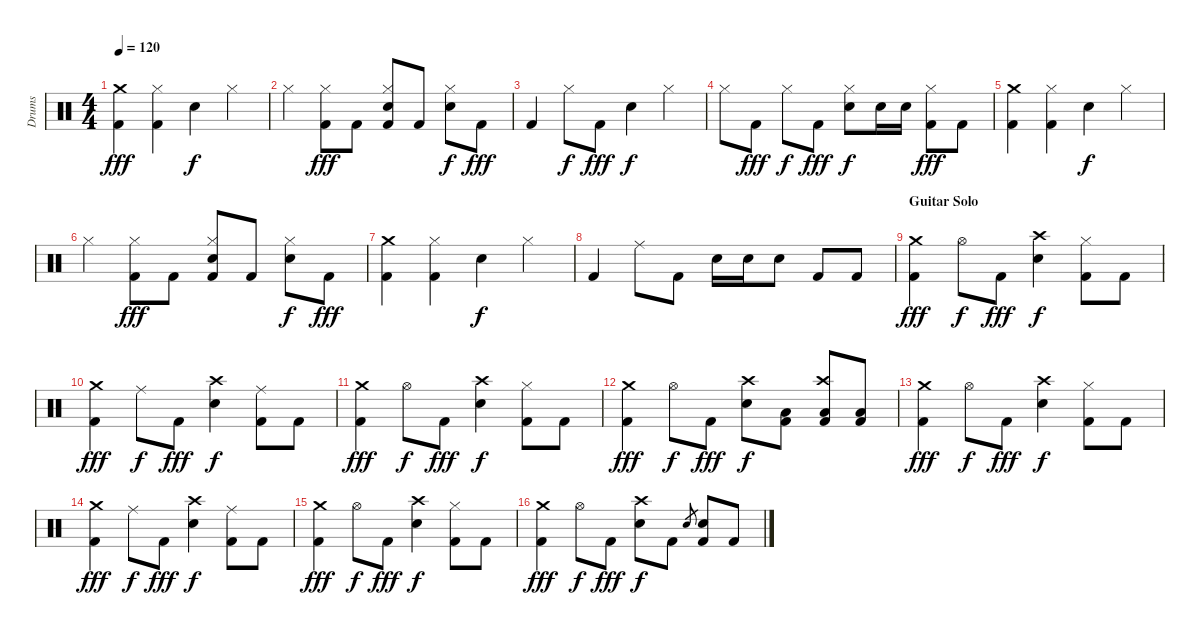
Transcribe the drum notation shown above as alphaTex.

\track ("Drums" "Drums") {instrument percussion}
\staff {score}
\articulation defaults
\ts (4 4)
\tempo 120
\clef neutral
\ks c
("Kick (hit) 2" "Crash medium (hit)").4{dy fff} ("Kick (hit) 2" "Hi-Hat (closed)").4 "Snare (hit) 2".4{dy f} "Hi-Hat (closed)".4 |
"Hi-Hat (closed)".4 ("Kick (hit) 2" "Hi-Hat (closed)").8{dy fff} "Kick (hit) 2".8 ("Kick (hit) 2" "Hi-Hat (closed)" "Snare (hit) 2").8 "Kick (hit) 2".8 ("Hi-Hat (closed)" "Snare (hit) 2").8{dy f} "Kick (hit) 2".8{dy fff} |
"Kick (hit) 2".4 "Hi-Hat (closed)".8{dy f} "Kick (hit) 2".8{dy fff} "Snare (hit) 2".4{dy f} "Hi-Hat (closed)".4 |
"Hi-Hat (closed)".8 "Kick (hit) 2".8{dy fff} "Hi-Hat (closed)".8{dy f} "Kick (hit) 2".8{dy fff} ("Hi-Hat (closed)" "Snare (hit) 2").8{dy f} "Snare (hit) 2".16 "Snare (hit) 2".16 ("Kick (hit) 2" "Hi-Hat (closed)").8{dy fff} "Kick (hit) 2".8 |
("Kick (hit) 2" "Crash medium (hit)").4 ("Kick (hit) 2" "Hi-Hat (closed)").4 "Snare (hit) 2".4{dy f} "Hi-Hat (closed)".4 |
"Hi-Hat (closed)".4 ("Kick (hit) 2" "Hi-Hat (closed)").8{dy fff} "Kick (hit) 2".8 ("Kick (hit) 2" "Hi-Hat (closed)" "Snare (hit) 2").8 "Kick (hit) 2".8 ("Hi-Hat (closed)" "Snare (hit) 2").8{dy f} "Kick (hit) 2".8{dy fff} |
("Kick (hit) 2" "Crash medium (hit)").4 ("Kick (hit) 2" "Hi-Hat (closed)").4 "Snare (hit) 2".4{dy f} "Hi-Hat (closed)".4 |
"Kick (hit) 2".4 "Ride (middle)".8 "Kick (hit) 2".8 "Snare (hit) 2".16 "Snare (hit) 2".16 "Snare (hit) 2".8 "Kick (hit) 2".8 "Kick (hit) 2".8 |
\section ("" "Guitar Solo")
("Kick (hit) 2" "Crash medium (hit)").4{dy fff} "Hi-Hat (open)".8{dy f} "Kick (hit) 2".8{dy fff} ("Snare (hit) 2" "Crash high (hit)").4{dy f} ("Kick (hit) 2" "Hi-Hat (closed)").8 "Kick (hit) 2".8 |
("Kick (hit) 2" "Crash medium (hit)").4{dy fff} "Ride (middle)".8{dy f} "Kick (hit) 2".8{dy fff} ("Snare (hit) 2" "Crash high (hit)").4{dy f} ("Kick (hit) 2" "Ride (middle)").8 "Kick (hit) 2".8 |
("Kick (hit) 2" "Crash medium (hit)").4{dy fff} "Hi-Hat (open)".8{dy f} "Kick (hit) 2".8{dy fff} ("Snare (hit) 2" "Crash high (hit)").4{dy f} ("Kick (hit) 2" "Hi-Hat (closed)").8 "Kick (hit) 2".8 |
("Kick (hit) 2" "Crash medium (hit)").4{dy fff} "Hi-Hat (open)".8{dy f} "Kick (hit) 2".8{dy fff} ("Snare (hit) 2" "Crash high (hit)").8{dy f} ("Kick (hit) 2" "Low Floor Tom (hit)").8 ("Kick (hit) 2" "Low Floor Tom (hit)" "Crash high (hit)").8 ("Kick (hit) 2" "Low Floor Tom (hit)").8 |
("Kick (hit) 2" "Crash medium (hit)").4{dy fff} "Hi-Hat (open)".8{dy f} "Kick (hit) 2".8{dy fff} ("Snare (hit) 2" "Crash high (hit)").4{dy f} ("Kick (hit) 2" "Hi-Hat (closed)").8 "Kick (hit) 2".8 |
("Kick (hit) 2" "Crash medium (hit)").4{dy fff} "Ride (middle)".8{dy f} "Kick (hit) 2".8{dy fff} ("Snare (hit) 2" "Crash high (hit)").4{dy f} ("Kick (hit) 2" "Ride (middle)").8 "Kick (hit) 2".8 |
("Kick (hit) 2" "Crash medium (hit)").4{dy fff} "Hi-Hat (open)".8{dy f} "Kick (hit) 2".8{dy fff} ("Snare (hit) 2" "Crash high (hit)").4{dy f} ("Kick (hit) 2" "Hi-Hat (closed)").8 "Kick (hit) 2".8 |
("Kick (hit) 2" "Crash medium (hit)").4{dy fff} "Hi-Hat (open)".8{dy f} "Kick (hit) 2".8{dy fff} ("Snare (hit) 2" "Crash high (hit)").8{dy f} "Kick (hit) 2".8 "Snare (hit) 2".8{gr} ("Kick (hit) 2" "Snare (hit) 2").8 "Kick (hit) 2".8
